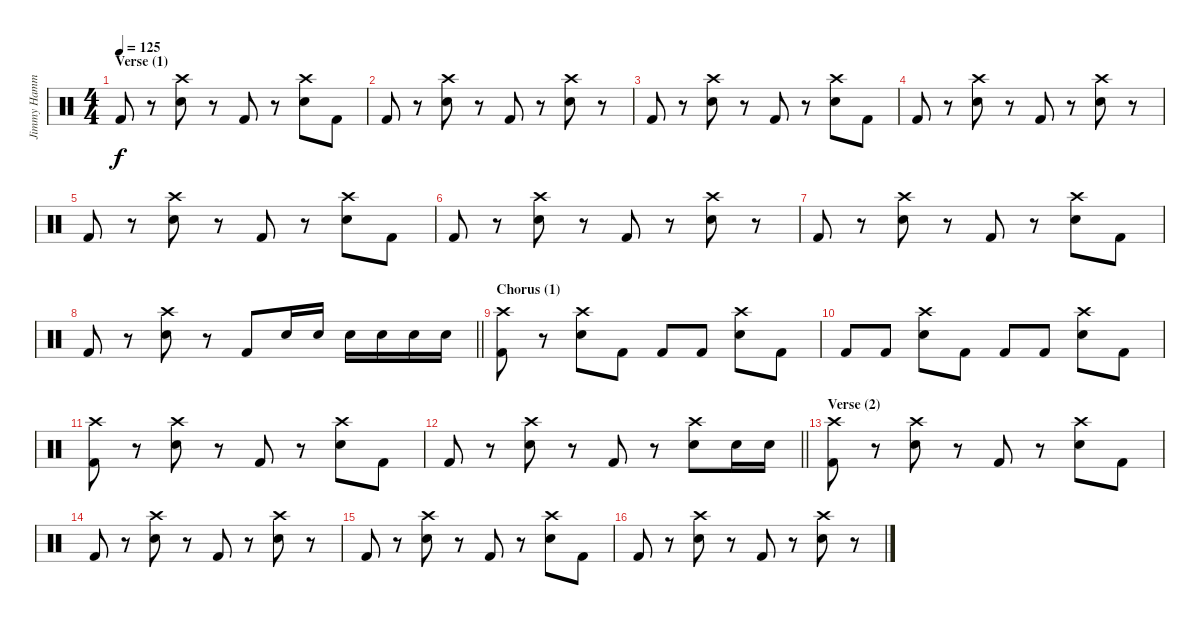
\track ("Jimmy Hammer" "Jimmy Hamm") {instrument percussion}
\staff {score}
\articulation defaults
\ts (4 4)
\section ("" "Verse (1)")
\tempo 125
\clef neutral
\ks c "Kick (hit) 2".8{dy f}
r.8 ("Electric Snare (hit)" "Crash high (hit)").8 r.8 "Kick (hit) 2".8 r.8 ("Electric Snare (hit)" "Crash high (hit)").8 "Kick (hit) 2".8 |
"Kick (hit) 2".8 r.8 ("Electric Snare (hit)" "Crash high (hit)").8 r.8 "Kick (hit) 2".8 r.8 ("Electric Snare (hit)" "Crash high (hit)").8 r.8 |
"Kick (hit) 2".8 r.8 ("Electric Snare (hit)" "Crash high (hit)").8 r.8 "Kick (hit) 2".8 r.8 ("Electric Snare (hit)" "Crash high (hit)").8 "Kick (hit) 2".8 |
"Kick (hit) 2".8 r.8 ("Electric Snare (hit)" "Crash high (hit)").8 r.8 "Kick (hit) 2".8 r.8 ("Electric Snare (hit)" "Crash high (hit)").8 r.8 |
"Kick (hit) 2".8 r.8 ("Electric Snare (hit)" "Crash high (hit)").8 r.8 "Kick (hit) 2".8 r.8 ("Electric Snare (hit)" "Crash high (hit)").8 "Kick (hit) 2".8 |
"Kick (hit) 2".8 r.8 ("Electric Snare (hit)" "Crash high (hit)").8 r.8 "Kick (hit) 2".8 r.8 ("Electric Snare (hit)" "Crash high (hit)").8 r.8 |
"Kick (hit) 2".8 r.8 ("Electric Snare (hit)" "Crash high (hit)").8 r.8 "Kick (hit) 2".8 r.8 ("Electric Snare (hit)" "Crash high (hit)").8 "Kick (hit) 2".8 |
\barLineRight lightlight "Kick (hit) 2".8
r.8 ("Electric Snare (hit)" "Crash high (hit)").8 r.8 "Kick (hit) 2".8 "Electric Snare (hit)".16 "Electric Snare (hit)".16 "Electric Snare (hit)".16 "Electric Snare (hit)".16 "Electric Snare (hit)".16 "Electric Snare (hit)".16 |
\section ("" "Chorus (1)")
("Crash high (hit)" "Kick (hit) 2").8 r.8 ("Electric Snare (hit)" "Crash high (hit)").8 "Kick (hit) 2".8 "Kick (hit) 2".8 "Kick (hit) 2".8 ("Electric Snare (hit)" "Crash high (hit)").8 "Kick (hit) 2".8 |
"Kick (hit) 2".8 "Kick (hit) 2".8 ("Electric Snare (hit)" "Crash high (hit)").8 "Kick (hit) 2".8 "Kick (hit) 2".8 "Kick (hit) 2".8 ("Electric Snare (hit)" "Crash high (hit)").8 "Kick (hit) 2".8 |
("Crash high (hit)" "Kick (hit) 2").8 r.8 ("Electric Snare (hit)" "Crash high (hit)").8 r.8 "Kick (hit) 2".8 r.8 ("Electric Snare (hit)" "Crash high (hit)").8 "Kick (hit) 2".8 |
\barLineRight lightlight "Kick (hit) 2".8
r.8 ("Electric Snare (hit)" "Crash high (hit)").8 r.8 "Kick (hit) 2".8 r.8 ("Electric Snare (hit)" "Crash high (hit)").8 "Electric Snare (hit)".16 "Electric Snare (hit)".16 |
\section ("" "Verse (2)")
("Crash high (hit)" "Kick (hit) 2").8 r.8 ("Electric Snare (hit)" "Crash high (hit)").8 r.8 "Kick (hit) 2".8 r.8 ("Electric Snare (hit)" "Crash high (hit)").8 "Kick (hit) 2".8 |
"Kick (hit) 2".8 r.8 ("Electric Snare (hit)" "Crash high (hit)").8 r.8 "Kick (hit) 2".8 r.8 ("Electric Snare (hit)" "Crash high (hit)").8 r.8 |
"Kick (hit) 2".8 r.8 ("Electric Snare (hit)" "Crash high (hit)").8 r.8 "Kick (hit) 2".8 r.8 ("Electric Snare (hit)" "Crash high (hit)").8 "Kick (hit) 2".8 |
"Kick (hit) 2".8 r.8 ("Electric Snare (hit)" "Crash high (hit)").8 r.8 "Kick (hit) 2".8 r.8 ("Electric Snare (hit)" "Crash high (hit)").8 r.8
